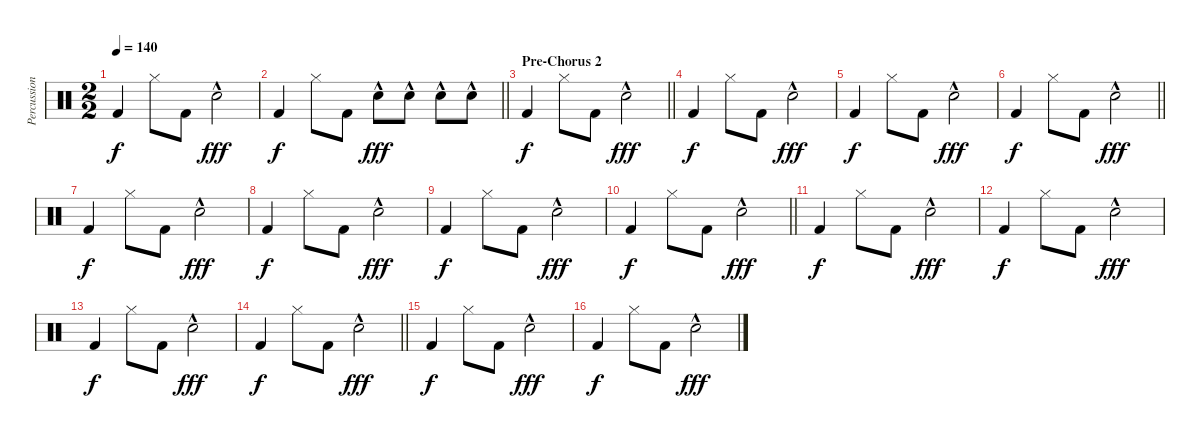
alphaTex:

\track ("Percussion" "Percussion") {instrument percussion}
\staff {score}
\articulation defaults
\ts (2 2)
\tempo 140
\clef neutral
\ks c "Kick (hit) 2".4{dy f} "Hi-Hat (closed)".8 "Kick (hit) 2".8 "Hand Clap (hit)"{hac}.2{dy fff}
|
\barLineRight lightlight "Kick (hit) 2".4{dy f} "Hi-Hat (closed)".8 "Kick (hit) 2".8 "Hand Clap (hit)"{hac}.8{dy fff} "Hand Clap (hit)"{hac}.8 "Hand Clap (hit)"{hac}.8 "Hand Clap (hit)"{hac}.8
|
\section ("" "Pre-Chorus 2")
\barLineRight lightlight "Kick (hit) 2".4{dy f} "Hi-Hat (closed)".8 "Kick (hit) 2".8 "Hand Clap (hit)"{hac}.2{dy fff}
|
"Kick (hit) 2".4{dy f} "Hi-Hat (closed)".8 "Kick (hit) 2".8 "Hand Clap (hit)"{hac}.2{dy fff} |
"Kick (hit) 2".4{dy f} "Hi-Hat (closed)".8 "Kick (hit) 2".8 "Hand Clap (hit)"{hac}.2{dy fff} |
\barLineRight lightlight "Kick (hit) 2".4{dy f} "Hi-Hat (closed)".8 "Kick (hit) 2".8 "Hand Clap (hit)"{hac}.2{dy fff}
|
"Kick (hit) 2".4{dy f} "Hi-Hat (closed)".8 "Kick (hit) 2".8 "Hand Clap (hit)"{hac}.2{dy fff} |
"Kick (hit) 2".4{dy f} "Hi-Hat (closed)".8 "Kick (hit) 2".8 "Hand Clap (hit)"{hac}.2{dy fff} |
"Kick (hit) 2".4{dy f} "Hi-Hat (closed)".8 "Kick (hit) 2".8 "Hand Clap (hit)"{hac}.2{dy fff} |
\barLineRight lightlight "Kick (hit) 2".4{dy f} "Hi-Hat (closed)".8 "Kick (hit) 2".8 "Hand Clap (hit)"{hac}.2{dy fff}
|
"Kick (hit) 2".4{dy f} "Hi-Hat (closed)".8 "Kick (hit) 2".8 "Hand Clap (hit)"{hac}.2{dy fff} |
"Kick (hit) 2".4{dy f} "Hi-Hat (closed)".8 "Kick (hit) 2".8 "Hand Clap (hit)"{hac}.2{dy fff} |
"Kick (hit) 2".4{dy f} "Hi-Hat (closed)".8 "Kick (hit) 2".8 "Hand Clap (hit)"{hac}.2{dy fff} |
\barLineRight lightlight "Kick (hit) 2".4{dy f} "Hi-Hat (closed)".8 "Kick (hit) 2".8 "Hand Clap (hit)"{hac}.2{dy fff}
|
"Kick (hit) 2".4{dy f} "Hi-Hat (closed)".8 "Kick (hit) 2".8 "Hand Clap (hit)"{hac}.2{dy fff} |
"Kick (hit) 2".4{dy f} "Hi-Hat (closed)".8 "Kick (hit) 2".8 "Hand Clap (hit)"{hac}.2{dy fff}
